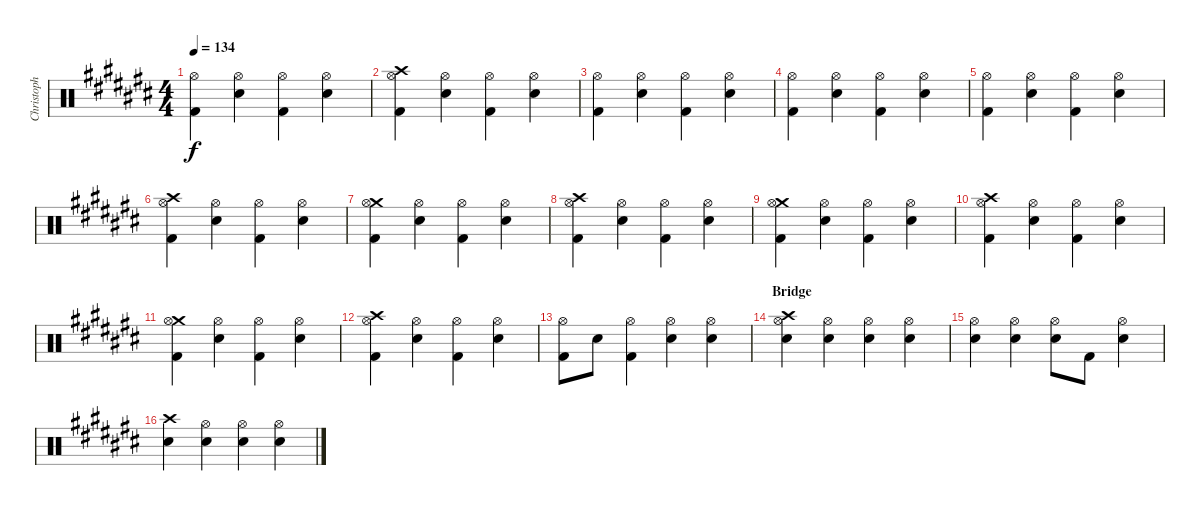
\track ("Christoph Doom Schneider - Drums" "Christoph ") {instrument percussion}
\staff {score}
\articulation defaults
\ts (4 4)
\tempo 134
\clef neutral
\ks c#
("Hi-Hat (open)" "Kick (hit) 2").4{dy f} ("Hi-Hat (open)" "Electric Snare (hit)").4 ("Hi-Hat (open)" "Kick (hit) 2").4 ("Hi-Hat (open)" "Electric Snare (hit)").4 |
("Crash high (hit)" "Hi-Hat (open)" "Kick (hit) 2").4 ("Hi-Hat (open)" "Electric Snare (hit)").4 ("Hi-Hat (open)" "Kick (hit) 2").4 ("Hi-Hat (open)" "Electric Snare (hit)").4 |
("Hi-Hat (open)" "Kick (hit) 2").4 ("Hi-Hat (open)" "Electric Snare (hit)").4 ("Hi-Hat (open)" "Kick (hit) 2").4 ("Hi-Hat (open)" "Electric Snare (hit)").4 |
("Hi-Hat (open)" "Kick (hit) 2").4 ("Hi-Hat (open)" "Electric Snare (hit)").4 ("Hi-Hat (open)" "Kick (hit) 2").4 ("Hi-Hat (open)" "Electric Snare (hit)").4 |
("Hi-Hat (open)" "Kick (hit) 2").4 ("Hi-Hat (open)" "Electric Snare (hit)").4 ("Hi-Hat (open)" "Kick (hit) 2").4 ("Hi-Hat (open)" "Electric Snare (hit)").4 |
("Crash high (hit)" "Hi-Hat (open)" "Kick (hit) 2").4 ("Hi-Hat (open)" "Electric Snare (hit)").4 ("Hi-Hat (open)" "Kick (hit) 2").4 ("Hi-Hat (open)" "Electric Snare (hit)").4 |
("Crash medium (hit)" "Hi-Hat (open)" "Kick (hit) 2").4 ("Hi-Hat (open)" "Electric Snare (hit)").4 ("Hi-Hat (open)" "Kick (hit) 2").4 ("Hi-Hat (open)" "Electric Snare (hit)").4 |
("Crash high (hit)" "Hi-Hat (open)" "Kick (hit) 2").4 ("Hi-Hat (open)" "Electric Snare (hit)").4 ("Hi-Hat (open)" "Kick (hit) 2").4 ("Hi-Hat (open)" "Electric Snare (hit)").4 |
("Crash medium (hit)" "Hi-Hat (open)" "Kick (hit) 2").4 ("Hi-Hat (open)" "Electric Snare (hit)").4 ("Hi-Hat (open)" "Kick (hit) 2").4 ("Hi-Hat (open)" "Electric Snare (hit)").4 |
("Crash high (hit)" "Hi-Hat (open)" "Kick (hit) 2").4 ("Hi-Hat (open)" "Electric Snare (hit)").4 ("Hi-Hat (open)" "Kick (hit) 2").4 ("Hi-Hat (open)" "Electric Snare (hit)").4 |
("Crash medium (hit)" "Hi-Hat (open)" "Kick (hit) 2").4 ("Hi-Hat (open)" "Electric Snare (hit)").4 ("Hi-Hat (open)" "Kick (hit) 2").4 ("Hi-Hat (open)" "Electric Snare (hit)").4 |
("Crash high (hit)" "Hi-Hat (open)" "Kick (hit) 2").4 ("Hi-Hat (open)" "Electric Snare (hit)").4 ("Hi-Hat (open)" "Kick (hit) 2").4 ("Hi-Hat (open)" "Electric Snare (hit)").4 |
("Hi-Hat (open)" "Kick (hit) 2").8 "Electric Snare (hit)".8 ("Hi-Hat (open)" "Kick (hit) 2").4 ("Hi-Hat (open)" "Electric Snare (hit)").4 ("Hi-Hat (open)" "Electric Snare (hit)").4 |
\section ("" "Bridge")
("Crash high (hit)" "Hi-Hat (open)" "Electric Snare (hit)").4 ("Hi-Hat (open)" "Electric Snare (hit)").4 ("Hi-Hat (open)" "Electric Snare (hit)").4 ("Hi-Hat (open)" "Electric Snare (hit)").4 |
("Hi-Hat (open)" "Electric Snare (hit)").4 ("Hi-Hat (open)" "Electric Snare (hit)").4 ("Hi-Hat (open)" "Electric Snare (hit)").8 "Kick (hit) 2".8 ("Hi-Hat (open)" "Electric Snare (hit)").4 |
("Crash high (hit)" "Electric Snare (hit)").4 ("Hi-Hat (open)" "Electric Snare (hit)").4 ("Hi-Hat (open)" "Electric Snare (hit)").4 ("Hi-Hat (open)" "Electric Snare (hit)").4
